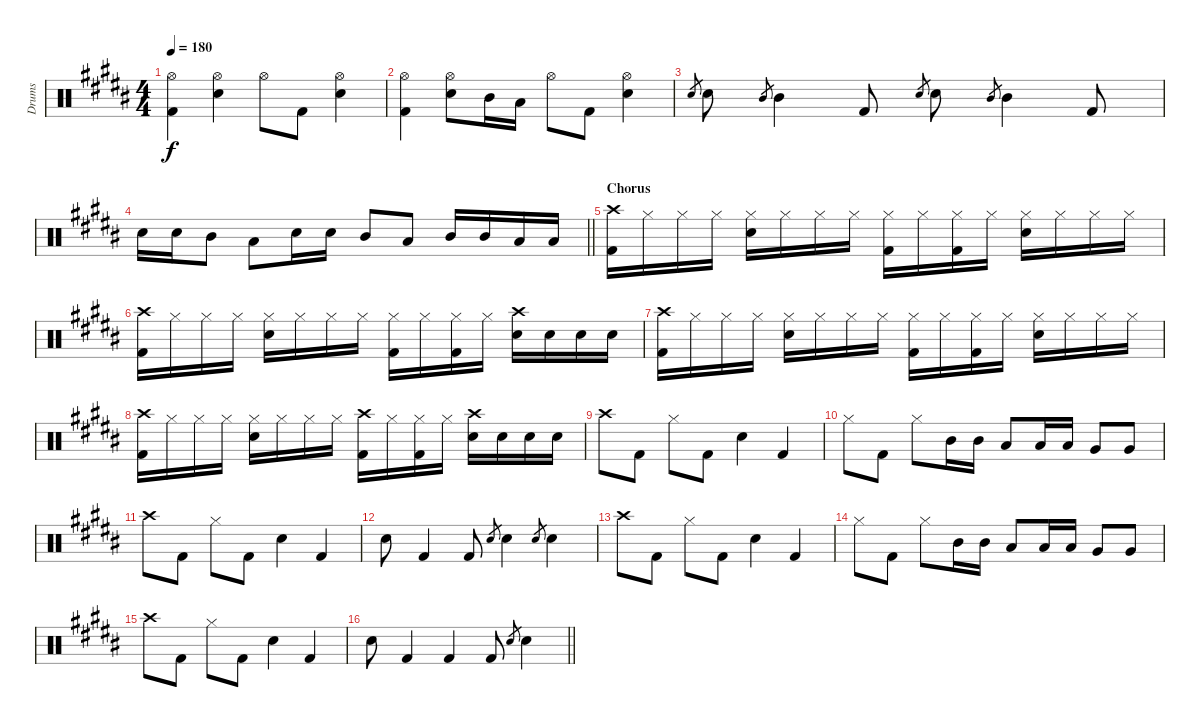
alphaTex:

\track ("Drums" "Drums") {instrument percussion}
\staff {score}
\articulation defaults
\ts (4 4)
\tempo 180
\clef neutral
\ks g#minor
("Hi-Hat (open)" "Kick (hit) 2").4{dy f} ("Hi-Hat (open)" "Snare (hit) 2").4 "Hi-Hat (open)".8 "Kick (hit) 2".8 ("Hi-Hat (open)" "Snare (hit) 2").4 |
("Hi-Hat (open)" "Kick (hit) 2").4 ("Hi-Hat (open)" "Snare (hit) 2").8 "Mid Tom (hit)".16 "Low Tom (hit)".16 "Hi-Hat (open)".8 "Kick (hit) 2".8 ("Hi-Hat (open)" "Snare (hit) 2").4 |
"Snare (hit) 2".8{gr} "Snare (hit) 2".8 "Mid Tom (hit)".8{gr} "Mid Tom (hit)".4 "Kick (hit) 2".8 "Snare (hit) 2".8{gr} "Snare (hit) 2".8 "Mid Tom (hit)".8{gr} "Mid Tom (hit)".4 "Kick (hit) 2".8 |
\barLineRight lightlight "Snare (hit) 2".16 "Snare (hit) 2".16 "Mid Tom (hit)".8 "Low Tom (hit)".8 "Snare (hit) 2".16 "Snare (hit) 2".16 "Mid Tom (hit)".8 "Low Tom (hit)".8 "Mid Tom (hit)".16 "Mid Tom (hit)".16 "Low Tom (hit)".16 "Low Tom (hit)".16
|
\section ("" "Chorus")
("Crash high (hit)" "Kick (hit) 2").16 "Hi-Hat (closed)".16 "Hi-Hat (closed)".16 "Hi-Hat (closed)".16 ("Hi-Hat (closed)" "Snare (hit) 2").16 "Hi-Hat (closed)".16 "Hi-Hat (closed)".16 "Hi-Hat (closed)".16 ("Hi-Hat (closed)" "Kick (hit) 2").16 "Hi-Hat (closed)".16 ("Hi-Hat (closed)" "Kick (hit) 2").16 "Hi-Hat (closed)".16 ("Hi-Hat (closed)" "Snare (hit) 2").16 "Hi-Hat (closed)".16 "Hi-Hat (closed)".16 "Hi-Hat (closed)".16 |
("Crash high (hit)" "Kick (hit) 2").16 "Hi-Hat (closed)".16 "Hi-Hat (closed)".16 "Hi-Hat (closed)".16 ("Hi-Hat (closed)" "Snare (hit) 2").16 "Hi-Hat (closed)".16 "Hi-Hat (closed)".16 "Hi-Hat (closed)".16 ("Hi-Hat (closed)" "Kick (hit) 2").16 "Hi-Hat (closed)".16 ("Hi-Hat (closed)" "Kick (hit) 2").16 "Hi-Hat (closed)".16 ("Crash high (hit)" "Snare (hit) 2").16 "Snare (hit) 2".16 "Snare (hit) 2".16 "Snare (hit) 2".16 |
("Crash high (hit)" "Kick (hit) 2").16 "Hi-Hat (closed)".16 "Hi-Hat (closed)".16 "Hi-Hat (closed)".16 ("Hi-Hat (closed)" "Snare (hit) 2").16 "Hi-Hat (closed)".16 "Hi-Hat (closed)".16 "Hi-Hat (closed)".16 ("Hi-Hat (closed)" "Kick (hit) 2").16 "Hi-Hat (closed)".16 ("Hi-Hat (closed)" "Kick (hit) 2").16 "Hi-Hat (closed)".16 ("Hi-Hat (closed)" "Snare (hit) 2").16 "Hi-Hat (closed)".16 "Hi-Hat (closed)".16 "Hi-Hat (closed)".16 |
("Crash high (hit)" "Kick (hit) 2").16 "Hi-Hat (closed)".16 "Hi-Hat (closed)".16 "Hi-Hat (closed)".16 ("Hi-Hat (closed)" "Snare (hit) 2").16 "Hi-Hat (closed)".16 "Hi-Hat (closed)".16 "Hi-Hat (closed)".16 ("Crash high (hit)" "Kick (hit) 2").16 "Hi-Hat (closed)".16 ("Hi-Hat (closed)" "Kick (hit) 2").16 "Hi-Hat (closed)".16 ("Crash high (hit)" "Snare (hit) 2").16 "Snare (hit) 2".16 "Snare (hit) 2".16 "Snare (hit) 2".16 |
"Crash high (hit)".8 "Kick (hit) 2".8 "Hi-Hat (closed)".8 "Kick (hit) 2".8 "Snare (hit) 2".4 "Kick (hit) 2".4 |
"Hi-Hat (closed)".8 "Kick (hit) 2".8 "Hi-Hat (closed)".8 "Mid Tom (hit)".16 "Mid Tom (hit)".16 "Low Tom (hit)".8 "Low Tom (hit)".16 "Low Tom (hit)".16 "Very Low Tom (hit)".8 "Very Low Tom (hit)".8 |
"Crash high (hit)".8 "Kick (hit) 2".8 "Hi-Hat (closed)".8 "Kick (hit) 2".8 "Snare (hit) 2".4 "Kick (hit) 2".4 |
"Snare (hit) 2".8 "Kick (hit) 2".4 "Kick (hit) 2".8 "Snare (hit) 2".8{gr} "Snare (hit) 2".4 "Snare (hit) 2".8{gr} "Snare (hit) 2".4 |
"Crash high (hit)".8 "Kick (hit) 2".8 "Hi-Hat (closed)".8 "Kick (hit) 2".8 "Snare (hit) 2".4 "Kick (hit) 2".4 |
"Hi-Hat (closed)".8 "Kick (hit) 2".8 "Hi-Hat (closed)".8 "Mid Tom (hit)".16 "Mid Tom (hit)".16 "Low Tom (hit)".8 "Low Tom (hit)".16 "Low Tom (hit)".16 "Very Low Tom (hit)".8 "Very Low Tom (hit)".8 |
"Crash high (hit)".8 "Kick (hit) 2".8 "Hi-Hat (closed)".8 "Kick (hit) 2".8 "Snare (hit) 2".4 "Kick (hit) 2".4 |
\barLineRight lightlight "Snare (hit) 2".8 "Kick (hit) 2".4 "Kick (hit) 2".4 "Kick (hit) 2".8 "Snare (hit) 2".8{gr} "Snare (hit) 2".4
